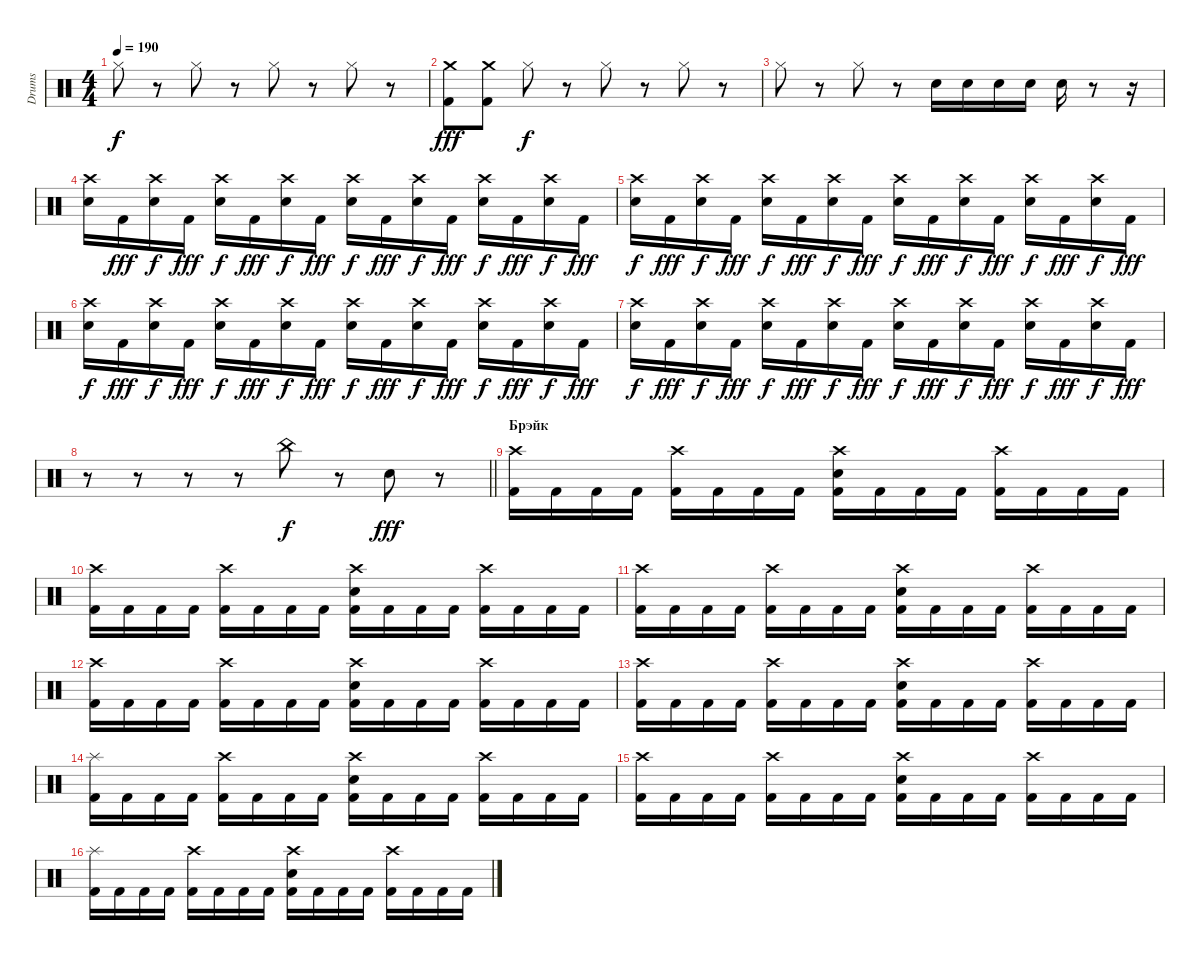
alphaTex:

\track ("Drums" "Drums") {instrument percussion}
\staff {score}
\articulation defaults
\ts (4 4)
\tempo 190
\clef neutral
\ks c "Hi-Hat (closed)".8{dy f}
r.8 "Hi-Hat (closed)".8 r.8 "Hi-Hat (closed)".8 r.8 "Hi-Hat (closed)".8 r.8 |
("Crash medium (hit)" "Kick (hit) 2").8{dy fff} ("Crash medium (hit)" "Kick (hit) 2").8 "Hi-Hat (closed)".8{dy f} r.8 "Hi-Hat (closed)".8 r.8 "Hi-Hat (closed)".8 r.8 |
"Hi-Hat (closed)".8 r.8 "Hi-Hat (closed)".8 r.8 "Electric Snare (hit)".16 "Electric Snare (hit)".16 "Electric Snare (hit)".16 "Electric Snare (hit)".16 "Electric Snare (hit)".16 r.8 r.16 |
("Crash high (hit)" "Electric Snare (hit)").16 "Kick (hit) 2".16{dy fff} ("Crash high (hit)" "Electric Snare (hit)").16{dy f} "Kick (hit) 2".16{dy fff} ("Crash high (hit)" "Electric Snare (hit)").16{dy f} "Kick (hit) 2".16{dy fff} ("Crash high (hit)" "Electric Snare (hit)").16{dy f} "Kick (hit) 2".16{dy fff} ("Crash high (hit)" "Electric Snare (hit)").16{dy f} "Kick (hit) 2".16{dy fff} ("Crash high (hit)" "Electric Snare (hit)").16{dy f} "Kick (hit) 2".16{dy fff} ("Crash high (hit)" "Electric Snare (hit)").16{dy f} "Kick (hit) 2".16{dy fff} ("Crash high (hit)" "Electric Snare (hit)").16{dy f} "Kick (hit) 2".16{dy fff} |
("Crash high (hit)" "Electric Snare (hit)").16{dy f} "Kick (hit) 2".16{dy fff} ("Crash high (hit)" "Electric Snare (hit)").16{dy f} "Kick (hit) 2".16{dy fff} ("Crash high (hit)" "Electric Snare (hit)").16{dy f} "Kick (hit) 2".16{dy fff} ("Crash high (hit)" "Electric Snare (hit)").16{dy f} "Kick (hit) 2".16{dy fff} ("Crash high (hit)" "Electric Snare (hit)").16{dy f} "Kick (hit) 2".16{dy fff} ("Crash high (hit)" "Electric Snare (hit)").16{dy f} "Kick (hit) 2".16{dy fff} ("Crash high (hit)" "Electric Snare (hit)").16{dy f} "Kick (hit) 2".16{dy fff} ("Crash high (hit)" "Electric Snare (hit)").16{dy f} "Kick (hit) 2".16{dy fff} |
("Crash high (hit)" "Electric Snare (hit)").16{dy f} "Kick (hit) 2".16{dy fff} ("Crash high (hit)" "Electric Snare (hit)").16{dy f} "Kick (hit) 2".16{dy fff} ("Crash high (hit)" "Electric Snare (hit)").16{dy f} "Kick (hit) 2".16{dy fff} ("Crash high (hit)" "Electric Snare (hit)").16{dy f} "Kick (hit) 2".16{dy fff} ("Crash high (hit)" "Electric Snare (hit)").16{dy f} "Kick (hit) 2".16{dy fff} ("Crash high (hit)" "Electric Snare (hit)").16{dy f} "Kick (hit) 2".16{dy fff} ("Crash high (hit)" "Electric Snare (hit)").16{dy f} "Kick (hit) 2".16{dy fff} ("Crash high (hit)" "Electric Snare (hit)").16{dy f} "Kick (hit) 2".16{dy fff} |
("Crash high (hit)" "Electric Snare (hit)").16{dy f} "Kick (hit) 2".16{dy fff} ("Crash high (hit)" "Electric Snare (hit)").16{dy f} "Kick (hit) 2".16{dy fff} ("Crash high (hit)" "Electric Snare (hit)").16{dy f} "Kick (hit) 2".16{dy fff} ("Crash high (hit)" "Electric Snare (hit)").16{dy f} "Kick (hit) 2".16{dy fff} ("Crash high (hit)" "Electric Snare (hit)").16{dy f} "Kick (hit) 2".16{dy fff} ("Crash high (hit)" "Electric Snare (hit)").16{dy f} "Kick (hit) 2".16{dy fff} ("Crash high (hit)" "Electric Snare (hit)").16{dy f} "Kick (hit) 2".16{dy fff} ("Crash high (hit)" "Electric Snare (hit)").16{dy f} "Kick (hit) 2".16{dy fff} |
\barLineRight lightlight
r.8 r.8 r.8 r.8 "China (hit)".8{dy f} r.8 "Electric Snare (hit)".8{dy fff} r.8 |
\section ("" "Брэйк")
("Crash high (hit)" "Kick (hit) 2").16 "Kick (hit) 2".16 "Kick (hit) 2".16 "Kick (hit) 2".16 ("Crash high (hit)" "Kick (hit) 2").16 "Kick (hit) 2".16 "Kick (hit) 2".16 "Kick (hit) 2".16 ("Crash high (hit)" "Electric Snare (hit)" "Kick (hit) 2").16 "Kick (hit) 2".16 "Kick (hit) 2".16 "Kick (hit) 2".16 ("Crash high (hit)" "Kick (hit) 2").16 "Kick (hit) 2".16 "Kick (hit) 2".16 "Kick (hit) 2".16 |
("Crash high (hit)" "Kick (hit) 2").16 "Kick (hit) 2".16 "Kick (hit) 2".16 "Kick (hit) 2".16 ("Crash high (hit)" "Kick (hit) 2").16 "Kick (hit) 2".16 "Kick (hit) 2".16 "Kick (hit) 2".16 ("Crash high (hit)" "Electric Snare (hit)" "Kick (hit) 2").16 "Kick (hit) 2".16 "Kick (hit) 2".16 "Kick (hit) 2".16 ("Crash high (hit)" "Kick (hit) 2").16 "Kick (hit) 2".16 "Kick (hit) 2".16 "Kick (hit) 2".16 |
("Crash high (hit)" "Kick (hit) 2").16 "Kick (hit) 2".16 "Kick (hit) 2".16 "Kick (hit) 2".16 ("Crash high (hit)" "Kick (hit) 2").16 "Kick (hit) 2".16 "Kick (hit) 2".16 "Kick (hit) 2".16 ("Crash high (hit)" "Electric Snare (hit)" "Kick (hit) 2").16 "Kick (hit) 2".16 "Kick (hit) 2".16 "Kick (hit) 2".16 ("Crash high (hit)" "Kick (hit) 2").16 "Kick (hit) 2".16 "Kick (hit) 2".16 "Kick (hit) 2".16 |
("Crash high (hit)" "Kick (hit) 2").16 "Kick (hit) 2".16 "Kick (hit) 2".16 "Kick (hit) 2".16 ("Crash high (hit)" "Kick (hit) 2").16 "Kick (hit) 2".16 "Kick (hit) 2".16 "Kick (hit) 2".16 ("Crash high (hit)" "Electric Snare (hit)" "Kick (hit) 2").16 "Kick (hit) 2".16 "Kick (hit) 2".16 "Kick (hit) 2".16 ("Crash high (hit)" "Kick (hit) 2").16 "Kick (hit) 2".16 "Kick (hit) 2".16 "Kick (hit) 2".16 |
("Crash high (hit)" "Kick (hit) 2").16 "Kick (hit) 2".16 "Kick (hit) 2".16 "Kick (hit) 2".16 ("Crash high (hit)" "Kick (hit) 2").16 "Kick (hit) 2".16 "Kick (hit) 2".16 "Kick (hit) 2".16 ("Crash high (hit)" "Electric Snare (hit)" "Kick (hit) 2").16 "Kick (hit) 2".16 "Kick (hit) 2".16 "Kick (hit) 2".16 ("Crash high (hit)" "Kick (hit) 2").16 "Kick (hit) 2".16 "Kick (hit) 2".16 "Kick (hit) 2".16 |
("Splash (hit)" "Kick (hit) 2").16 "Kick (hit) 2".16 "Kick (hit) 2".16 "Kick (hit) 2".16 ("Crash high (hit)" "Kick (hit) 2").16 "Kick (hit) 2".16 "Kick (hit) 2".16 "Kick (hit) 2".16 ("Crash high (hit)" "Electric Snare (hit)" "Kick (hit) 2").16 "Kick (hit) 2".16 "Kick (hit) 2".16 "Kick (hit) 2".16 ("Crash high (hit)" "Kick (hit) 2").16 "Kick (hit) 2".16 "Kick (hit) 2".16 "Kick (hit) 2".16 |
("Crash high (hit)" "Kick (hit) 2").16 "Kick (hit) 2".16 "Kick (hit) 2".16 "Kick (hit) 2".16 ("Crash high (hit)" "Kick (hit) 2").16 "Kick (hit) 2".16 "Kick (hit) 2".16 "Kick (hit) 2".16 ("Crash high (hit)" "Electric Snare (hit)" "Kick (hit) 2").16 "Kick (hit) 2".16 "Kick (hit) 2".16 "Kick (hit) 2".16 ("Crash high (hit)" "Kick (hit) 2").16 "Kick (hit) 2".16 "Kick (hit) 2".16 "Kick (hit) 2".16 |
("Splash (hit)" "Kick (hit) 2").16 "Kick (hit) 2".16 "Kick (hit) 2".16 "Kick (hit) 2".16 ("Crash high (hit)" "Kick (hit) 2").16 "Kick (hit) 2".16 "Kick (hit) 2".16 "Kick (hit) 2".16 ("Crash high (hit)" "Electric Snare (hit)" "Kick (hit) 2").16 "Kick (hit) 2".16 "Kick (hit) 2".16 "Kick (hit) 2".16 ("Crash high (hit)" "Kick (hit) 2").16 "Kick (hit) 2".16 "Kick (hit) 2".16 "Kick (hit) 2".16
